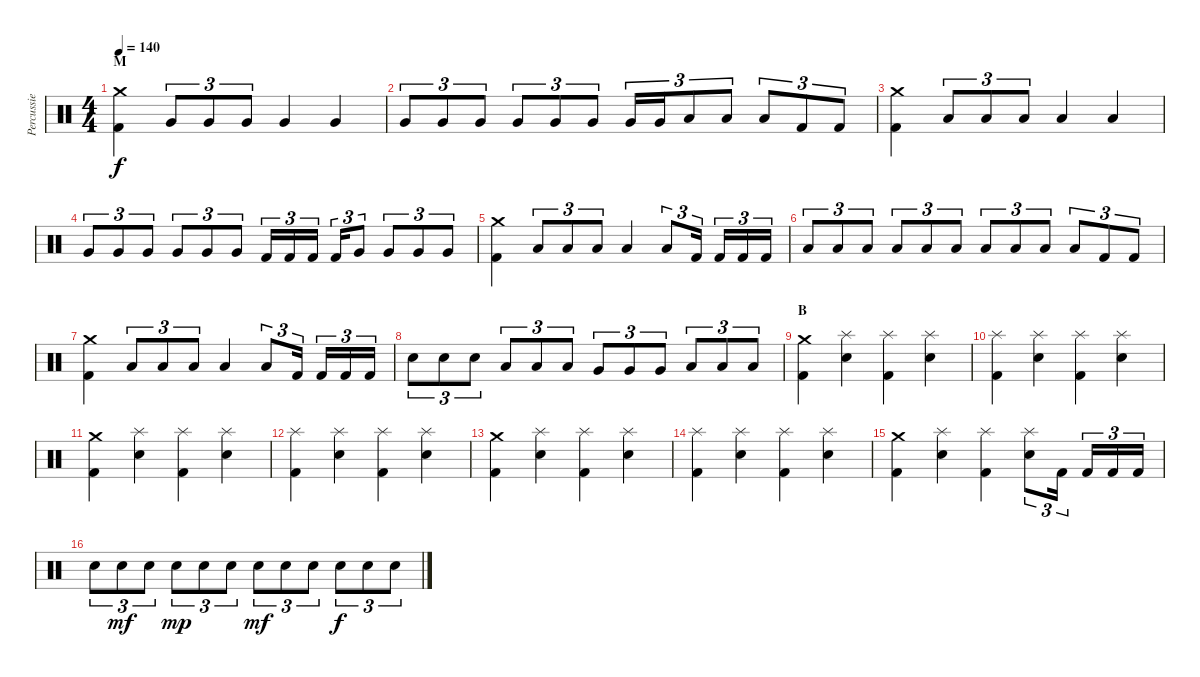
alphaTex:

\track ("Percussie" "Percussie") {instrument percussion}
\staff {score}
\articulation defaults
\ts (4 4)
\section ("" "M")
\tempo 140
\clef neutral
\ks c
("Crash medium (hit)" "Kick (hit) 2").4{dy f} "Very Low Tom (hit)".8{tu (3 2)} "Very Low Tom (hit)".8{tu (3 2)} "Very Low Tom (hit)".8{tu (3 2)} "Very Low Tom (hit)".4 "Very Low Tom (hit)".4 |
"Very Low Tom (hit)".8{tu (3 2)} "Very Low Tom (hit)".8{tu (3 2)} "Very Low Tom (hit)".8{tu (3 2)} "Very Low Tom (hit)".8{tu (3 2)} "Very Low Tom (hit)".8{tu (3 2)} "Very Low Tom (hit)".8{tu (3 2)} "Very Low Tom (hit)".16{tu (3 2)} "Very Low Tom (hit)".16{tu (3 2)} "Low Floor Tom (hit)".8{tu (3 2)} "Low Floor Tom (hit)".8{tu (3 2)} "Low Floor Tom (hit)".8{tu (3 2)} "Kick (hit) 2".8{tu (3 2)} "Kick (hit) 2".8{tu (3 2)} |
("Crash medium (hit)" "Kick (hit) 2").4 "Low Tom (hit)".8{tu (3 2)} "Low Tom (hit)".8{tu (3 2)} "Low Tom (hit)".8{tu (3 2)} "Low Tom (hit)".4 "Low Tom (hit)".4 |
"Very Low Tom (hit)".8{tu (3 2)} "Very Low Tom (hit)".8{tu (3 2)} "Very Low Tom (hit)".8{tu (3 2)} "Very Low Tom (hit)".8{tu (3 2)} "Very Low Tom (hit)".8{tu (3 2)} "Very Low Tom (hit)".8{tu (3 2)} "Kick (hit) 2".16{tu (3 2)} "Kick (hit) 2".16{tu (3 2)} "Kick (hit) 2".16{tu (3 2)} "Kick (hit) 2".16{tu (3 2)} "Very Low Tom (hit)".8{tu (3 2)} "Very Low Tom (hit)".8{tu (3 2)} "Very Low Tom (hit)".8{tu (3 2)} "Very Low Tom (hit)".8{tu (3 2)} |
("Crash medium (hit)" "Kick (hit) 2").4 "Low Tom (hit)".8{tu (3 2)} "Low Tom (hit)".8{tu (3 2)} "Low Tom (hit)".8{tu (3 2)} "Low Tom (hit)".4 "Low Tom (hit)".8{tu (3 2)} "Kick (hit) 2".16{tu (3 2)} "Kick (hit) 2".16{tu (3 2)} "Kick (hit) 2".16{tu (3 2)} "Kick (hit) 2".16{tu (3 2)} |
"Low Tom (hit)".8{tu (3 2)} "Low Tom (hit)".8{tu (3 2)} "Low Tom (hit)".8{tu (3 2)} "Low Tom (hit)".8{tu (3 2)} "Low Tom (hit)".8{tu (3 2)} "Low Tom (hit)".8{tu (3 2)} "Low Tom (hit)".8{tu (3 2)} "Low Tom (hit)".8{tu (3 2)} "Low Tom (hit)".8{tu (3 2)} "Low Tom (hit)".8{tu (3 2)} "Kick (hit) 2".8{tu (3 2)} "Kick (hit) 2".8{tu (3 2)} |
("Crash medium (hit)" "Kick (hit) 2").4 "Low Tom (hit)".8{tu (3 2)} "Low Tom (hit)".8{tu (3 2)} "Low Tom (hit)".8{tu (3 2)} "Low Tom (hit)".4 "Low Tom (hit)".8{tu (3 2)} "Kick (hit) 2".16{tu (3 2)} "Kick (hit) 2".16{tu (3 2)} "Kick (hit) 2".16{tu (3 2)} "Kick (hit) 2".16{tu (3 2)} |
"Electric Snare (hit)".8{tu (3 2)} "Electric Snare (hit)".8{tu (3 2)} "Electric Snare (hit)".8{tu (3 2)} "Low Tom (hit)".8{tu (3 2)} "Low Tom (hit)".8{tu (3 2)} "Low Tom (hit)".8{tu (3 2)} "Very Low Tom (hit)".8{tu (3 2)} "Very Low Tom (hit)".8{tu (3 2)} "Very Low Tom (hit)".8{tu (3 2)} "Low Floor Tom (hit)".8{tu (3 2)} "Low Floor Tom (hit)".8{tu (3 2)} "Low Floor Tom (hit)".8{tu (3 2)} |
\section ("" "B")
("Crash medium (hit)" "Kick (hit) 2").4{volume 16} ("Splash (hit)" "Electric Snare (hit)").4 ("Splash (hit)" "Kick (hit) 2").4 ("Splash (hit)" "Electric Snare (hit)").4 |
("Splash (hit)" "Kick (hit) 2").4 ("Splash (hit)" "Electric Snare (hit)").4 ("Splash (hit)" "Kick (hit) 2").4 ("Splash (hit)" "Electric Snare (hit)").4 |
("Crash medium (hit)" "Kick (hit) 2").4 ("Splash (hit)" "Electric Snare (hit)").4 ("Splash (hit)" "Kick (hit) 2").4 ("Splash (hit)" "Electric Snare (hit)").4 |
("Splash (hit)" "Kick (hit) 2").4 ("Splash (hit)" "Electric Snare (hit)").4 ("Splash (hit)" "Kick (hit) 2").4 ("Splash (hit)" "Electric Snare (hit)").4 |
("Crash medium (hit)" "Kick (hit) 2").4 ("Splash (hit)" "Electric Snare (hit)").4 ("Splash (hit)" "Kick (hit) 2").4 ("Splash (hit)" "Electric Snare (hit)").4 |
("Splash (hit)" "Kick (hit) 2").4 ("Splash (hit)" "Electric Snare (hit)").4 ("Splash (hit)" "Kick (hit) 2").4 ("Splash (hit)" "Electric Snare (hit)").4 |
("Crash medium (hit)" "Kick (hit) 2").4 ("Splash (hit)" "Electric Snare (hit)").4 ("Splash (hit)" "Kick (hit) 2").4 ("Splash (hit)" "Electric Snare (hit)").8{tu (3 2)} "Kick (hit) 2".16{tu (3 2)} "Kick (hit) 2".16{tu (3 2)} "Kick (hit) 2".16{tu (3 2)} "Kick (hit) 2".16{tu (3 2)} |
"Electric Snare (hit)".8{tu (3 2)} "Electric Snare (hit)".8{tu (3 2) dy mf} "Electric Snare (hit)".8{tu (3 2)} "Electric Snare (hit)".8{tu (3 2) dy mp} "Electric Snare (hit)".8{tu (3 2)} "Electric Snare (hit)".8{tu (3 2)} "Electric Snare (hit)".8{tu (3 2) dy mf} "Electric Snare (hit)".8{tu (3 2)} "Electric Snare (hit)".8{tu (3 2)} "Electric Snare (hit)".8{tu (3 2) dy f} "Electric Snare (hit)".8{tu (3 2)} "Electric Snare (hit)".8{tu (3 2)}
